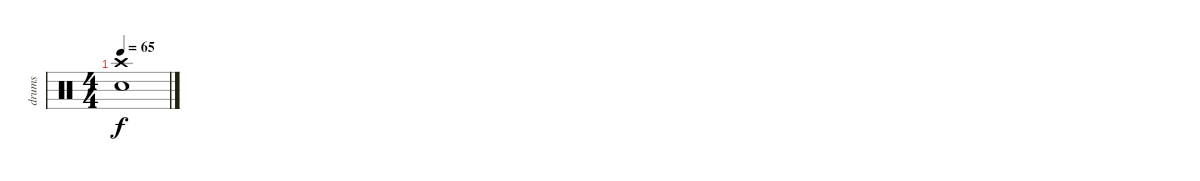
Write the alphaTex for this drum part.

\track ("drums" "drums") {instrument percussion}
\staff {score}
\articulation defaults
\ts (4 4)
\tempo 65
\clef neutral
\ks c
("Electric Snare (hit)" "Crash high (hit)").1{dy f}
